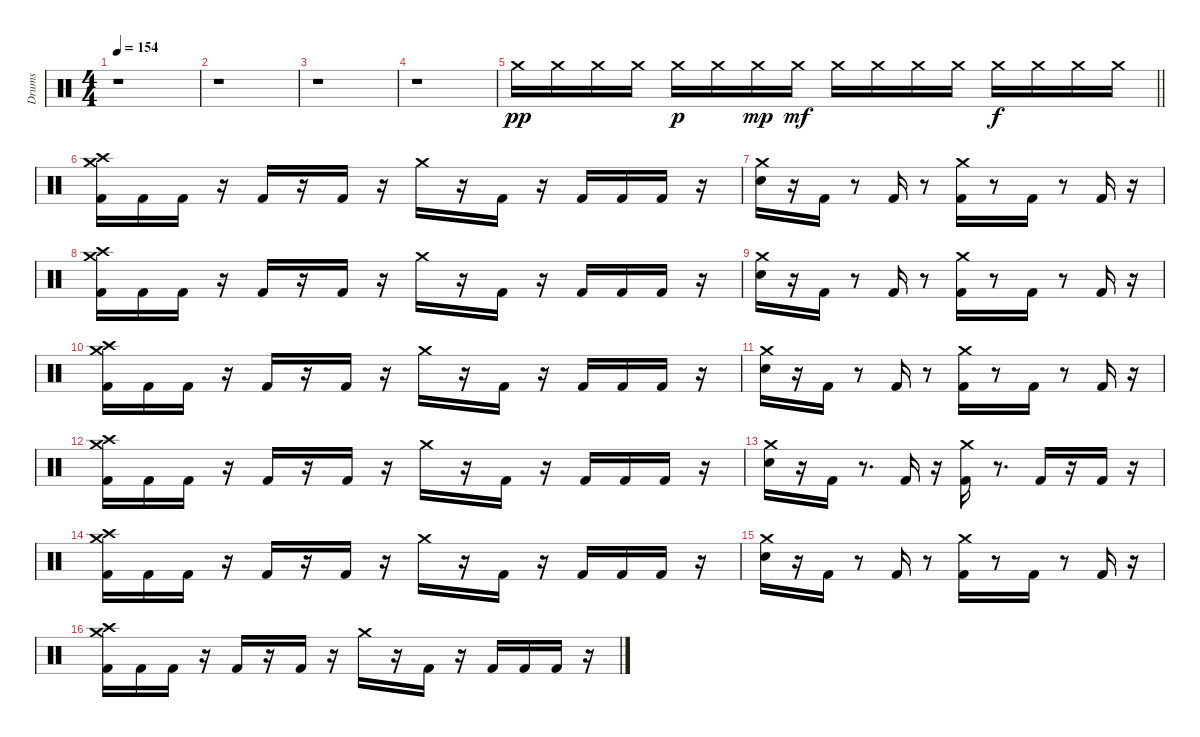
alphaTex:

\track ("Drums" "Drums") {instrument percussion}
\staff {score}
\articulation defaults
\ts (4 4)
\tempo 154
\clef neutral
\ks c
r.1{dy pp} |
r.1 |
r.1 |
r.1 |
\barLineRight lightlight "Crash medium (hit)".16 "Crash medium (hit)".16 "Crash medium (hit)".16 "Crash medium (hit)".16 "Crash medium (hit)".16{dy p} "Crash medium (hit)".16 "Crash medium (hit)".16{dy mp} "Crash medium (hit)".16{dy mf} "Crash medium (hit)".16 "Crash medium (hit)".16 "Crash medium (hit)".16 "Crash medium (hit)".16 "Crash medium (hit)".16{dy f} "Crash medium (hit)".16 "Crash medium (hit)".16 "Crash medium (hit)".16
|
\section ("" " ")
("Kick (hit) 2" "Crash high (hit)" "Crash medium (hit)").16 "Kick (hit) 2".16 "Kick (hit) 2".16 r.16 "Kick (hit) 2".16 r.16 "Kick (hit) 2".16 r.16 "Crash medium (hit)".16 r.16 "Kick (hit) 2".16 r.16 "Kick (hit) 2".16 "Kick (hit) 2".16 "Kick (hit) 2".16 r.16 |
("Snare (hit) 2" "Crash medium (hit)").16 r.16 "Kick (hit) 2".16 r.8 "Kick (hit) 2".16 r.8 ("Kick (hit) 2" "Crash medium (hit)").16 r.8 "Kick (hit) 2".16 r.8 "Kick (hit) 2".16 r.16 |
("Kick (hit) 2" "Crash high (hit)" "Crash medium (hit)").16 "Kick (hit) 2".16 "Kick (hit) 2".16 r.16 "Kick (hit) 2".16 r.16 "Kick (hit) 2".16 r.16 "Crash medium (hit)".16 r.16 "Kick (hit) 2".16 r.16 "Kick (hit) 2".16 "Kick (hit) 2".16 "Kick (hit) 2".16 r.16 |
("Snare (hit) 2" "Crash medium (hit)").16 r.16 "Kick (hit) 2".16 r.8 "Kick (hit) 2".16 r.8 ("Kick (hit) 2" "Crash medium (hit)").16 r.8 "Kick (hit) 2".16 r.8 "Kick (hit) 2".16 r.16 |
("Kick (hit) 2" "Crash high (hit)" "Crash medium (hit)").16 "Kick (hit) 2".16 "Kick (hit) 2".16 r.16 "Kick (hit) 2".16 r.16 "Kick (hit) 2".16 r.16 "Crash medium (hit)".16 r.16 "Kick (hit) 2".16 r.16 "Kick (hit) 2".16 "Kick (hit) 2".16 "Kick (hit) 2".16 r.16 |
("Snare (hit) 2" "Crash medium (hit)").16 r.16 "Kick (hit) 2".16 r.8 "Kick (hit) 2".16 r.8 ("Kick (hit) 2" "Crash medium (hit)").16 r.8 "Kick (hit) 2".16 r.8 "Kick (hit) 2".16 r.16 |
("Kick (hit) 2" "Crash high (hit)" "Crash medium (hit)").16 "Kick (hit) 2".16 "Kick (hit) 2".16 r.16 "Kick (hit) 2".16 r.16 "Kick (hit) 2".16 r.16 "Crash medium (hit)".16 r.16 "Kick (hit) 2".16 r.16 "Kick (hit) 2".16 "Kick (hit) 2".16 "Kick (hit) 2".16 r.16 |
("Snare (hit) 2" "Crash medium (hit)").16 r.16 "Kick (hit) 2".16 r.8{d} "Kick (hit) 2".16 r.16 ("Kick (hit) 2" "Crash medium (hit)").16 r.8{d} "Kick (hit) 2".16 r.16 "Kick (hit) 2".16 r.16 |
("Kick (hit) 2" "Crash high (hit)" "Crash medium (hit)").16 "Kick (hit) 2".16 "Kick (hit) 2".16 r.16 "Kick (hit) 2".16 r.16 "Kick (hit) 2".16 r.16 "Crash medium (hit)".16 r.16 "Kick (hit) 2".16 r.16 "Kick (hit) 2".16 "Kick (hit) 2".16 "Kick (hit) 2".16 r.16 |
("Snare (hit) 2" "Crash medium (hit)").16 r.16 "Kick (hit) 2".16 r.8 "Kick (hit) 2".16 r.8 ("Kick (hit) 2" "Crash medium (hit)").16 r.8 "Kick (hit) 2".16 r.8 "Kick (hit) 2".16 r.16 |
("Kick (hit) 2" "Crash high (hit)" "Crash medium (hit)").16 "Kick (hit) 2".16 "Kick (hit) 2".16 r.16 "Kick (hit) 2".16 r.16 "Kick (hit) 2".16 r.16 "Crash medium (hit)".16 r.16 "Kick (hit) 2".16 r.16 "Kick (hit) 2".16 "Kick (hit) 2".16 "Kick (hit) 2".16 r.16
